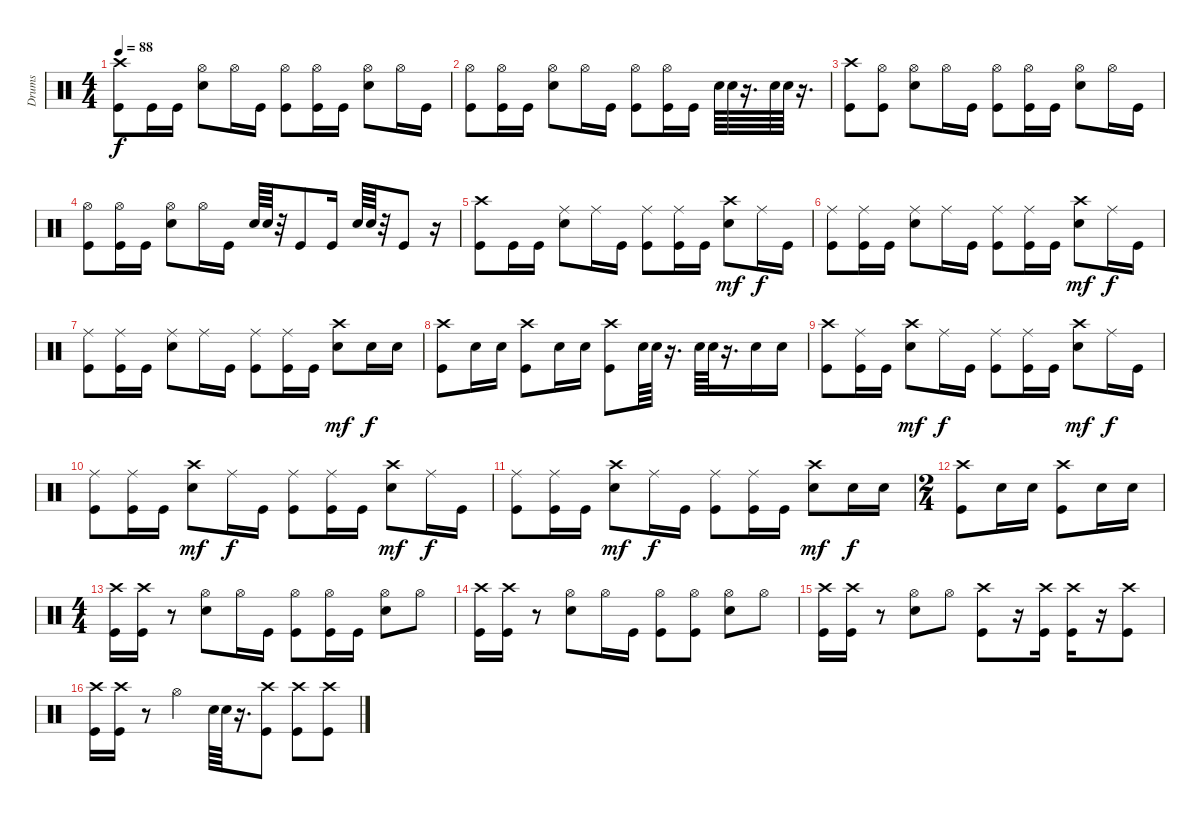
\track ("Drums" "Drums") {instrument percussion}
\staff {score}
\articulation defaults
\ts (4 4)
\tempo 88
\clef neutral
\ks c
("Crash high (hit)" "Kick (hit)").8{dy f} "Kick (hit)".16 "Kick (hit)".16 ("Hi-Hat (open)" "Snare (hit) 2").8 "Hi-Hat (open)".16 "Kick (hit)".16 ("Hi-Hat (open)" "Kick (hit)").8 ("Hi-Hat (open)" "Kick (hit)").16 "Kick (hit)".16 ("Hi-Hat (open)" "Snare (hit) 2").8 "Hi-Hat (open)".16 "Kick (hit)".16 |
("Hi-Hat (open)" "Kick (hit)").8 ("Hi-Hat (open)" "Kick (hit)").16 "Kick (hit)".16 ("Hi-Hat (open)" "Snare (hit) 2").8 "Hi-Hat (open)".16 "Kick (hit)".16 ("Hi-Hat (open)" "Kick (hit)").8 ("Hi-Hat (open)" "Kick (hit)").16 "Kick (hit)".16 "Snare (hit) 2".64 "Snare (hit) 2".64 r.16{d} "Snare (hit) 2".64 "Snare (hit) 2".64 r.16{d} |
("Crash high (hit)" "Kick (hit)").8 ("Hi-Hat (open)" "Kick (hit)").8 ("Hi-Hat (open)" "Snare (hit) 2").8 "Hi-Hat (open)".16 "Kick (hit)".16 ("Hi-Hat (open)" "Kick (hit)").8 ("Hi-Hat (open)" "Kick (hit)").16 "Kick (hit)".16 ("Hi-Hat (open)" "Snare (hit) 2").8 "Hi-Hat (open)".16 "Kick (hit)".16 |
("Hi-Hat (open)" "Kick (hit)").8 ("Hi-Hat (open)" "Kick (hit)").16 "Kick (hit)".16 ("Hi-Hat (open)" "Snare (hit) 2").8 "Hi-Hat (open)".16 "Kick (hit)".16 "Snare (hit) 2".64 "Snare (hit) 2".64 r.32 "Kick (hit)".8 "Kick (hit)".16 "Snare (hit) 2".64 "Snare (hit) 2".64 r.32 "Kick (hit)".8 r.16 |
("Crash high (hit)" "Kick (hit)").8 "Kick (hit)".16 "Kick (hit)".16 ("Ride (middle)" "Snare (hit) 2").8 "Ride (middle)".16 "Kick (hit)".16 ("Ride (middle)" "Kick (hit)").8 ("Ride (middle)" "Kick (hit)").16 "Kick (hit)".16 ("Crash high (hit)" "Snare (hit) 2").8{dy mf} "Ride (middle)".16{dy f} "Kick (hit)".16 |
("Ride (middle)" "Kick (hit)").8 ("Ride (middle)" "Kick (hit)").16 "Kick (hit)".16 ("Ride (middle)" "Snare (hit) 2").8 "Ride (middle)".16 "Kick (hit)".16 ("Ride (middle)" "Kick (hit)").8 ("Ride (middle)" "Kick (hit)").16 "Kick (hit)".16 ("Crash high (hit)" "Snare (hit) 2").8{dy mf} "Ride (middle)".16{dy f} "Kick (hit)".16 |
("Ride (middle)" "Kick (hit)").8 ("Ride (middle)" "Kick (hit)").16 "Kick (hit)".16 ("Ride (middle)" "Snare (hit) 2").8 "Ride (middle)".16 "Kick (hit)".16 ("Ride (middle)" "Kick (hit)").8 ("Ride (middle)" "Kick (hit)").16 "Kick (hit)".16 ("Crash high (hit)" "Snare (hit) 2").8{dy mf} "Snare (hit) 2".16{dy f} "Snare (hit) 2".16 |
("Crash high (hit)" "Kick (hit)").8 "Snare (hit) 2".16 "Snare (hit) 2".16 ("Crash high (hit)" "Kick (hit)").8 "Snare (hit) 2".16 "Snare (hit) 2".16 ("Crash high (hit)" "Kick (hit)").8 "Snare (hit) 2".64 "Snare (hit) 2".64 r.16{d} "Snare (hit) 2".64 "Snare (hit) 2".64 r.16{d} "Snare (hit) 2".16 "Snare (hit) 2".16 |
("Crash high (hit)" "Kick (hit)").8 ("Ride (middle)" "Kick (hit)").16 "Kick (hit)".16 ("Crash high (hit)" "Snare (hit) 2").8{dy mf} "Ride (middle)".16{dy f} "Kick (hit)".16 ("Ride (middle)" "Kick (hit)").8 ("Ride (middle)" "Kick (hit)").16 "Kick (hit)".16 ("Crash high (hit)" "Snare (hit) 2").8{dy mf} "Ride (middle)".16{dy f} "Kick (hit)".16 |
("Ride (middle)" "Kick (hit)").8 ("Ride (middle)" "Kick (hit)").16 "Kick (hit)".16 ("Crash high (hit)" "Snare (hit) 2").8{dy mf} "Ride (middle)".16{dy f} "Kick (hit)".16 ("Ride (middle)" "Kick (hit)").8 ("Ride (middle)" "Kick (hit)").16 "Kick (hit)".16 ("Crash high (hit)" "Snare (hit) 2").8{dy mf} "Ride (middle)".16{dy f} "Kick (hit)".16 |
("Ride (middle)" "Kick (hit)").8 ("Ride (middle)" "Kick (hit)").16 "Kick (hit)".16 ("Crash high (hit)" "Snare (hit) 2").8{dy mf} "Ride (middle)".16{dy f} "Kick (hit)".16 ("Ride (middle)" "Kick (hit)").8 ("Ride (middle)" "Kick (hit)").16 "Kick (hit)".16 ("Crash high (hit)" "Snare (hit) 2").8{dy mf} "Snare (hit) 2".16{dy f} "Snare (hit) 2".16 |
\ts (2 4)
("Crash high (hit)" "Kick (hit)").8 "Snare (hit) 2".16 "Snare (hit) 2".16 ("Crash high (hit)" "Kick (hit)").8 "Snare (hit) 2".16 "Snare (hit) 2".16 |
\ts (4 4)
("Crash high (hit)" "Kick (hit)").16 ("Crash high (hit)" "Kick (hit)").16 r.8 ("Hi-Hat (open)" "Snare (hit) 2").8 "Hi-Hat (open)".16 "Kick (hit)".16 ("Hi-Hat (open)" "Kick (hit)").8 ("Hi-Hat (open)" "Kick (hit)").16 "Kick (hit)".16 ("Hi-Hat (open)" "Snare (hit) 2").8 "Hi-Hat (open)".8 |
("Crash high (hit)" "Kick (hit)").16 ("Crash high (hit)" "Kick (hit)").16 r.8 ("Hi-Hat (open)" "Snare (hit) 2").8 "Hi-Hat (open)".16 "Kick (hit)".16 ("Hi-Hat (open)" "Kick (hit)").8 ("Hi-Hat (open)" "Kick (hit)").8 ("Hi-Hat (open)" "Snare (hit) 2").8 "Hi-Hat (open)".8 |
("Crash high (hit)" "Kick (hit)").16 ("Crash high (hit)" "Kick (hit)").16 r.8 ("Hi-Hat (open)" "Snare (hit) 2").8 "Hi-Hat (open)".8 ("Crash high (hit)" "Kick (hit)").8 r.16 ("Crash high (hit)" "Kick (hit)").16 ("Crash high (hit)" "Kick (hit)").16 r.16 ("Crash high (hit)" "Kick (hit)").8 |
("Crash high (hit)" "Kick (hit)").16 ("Crash high (hit)" "Kick (hit)").16 r.8 "Hi-Hat (open)".4 "Snare (hit) 2".64 "Snare (hit) 2".64 r.16{d} ("Crash high (hit)" "Kick (hit)").8 ("Crash high (hit)" "Kick (hit)").8 ("Crash high (hit)" "Kick (hit)").8
